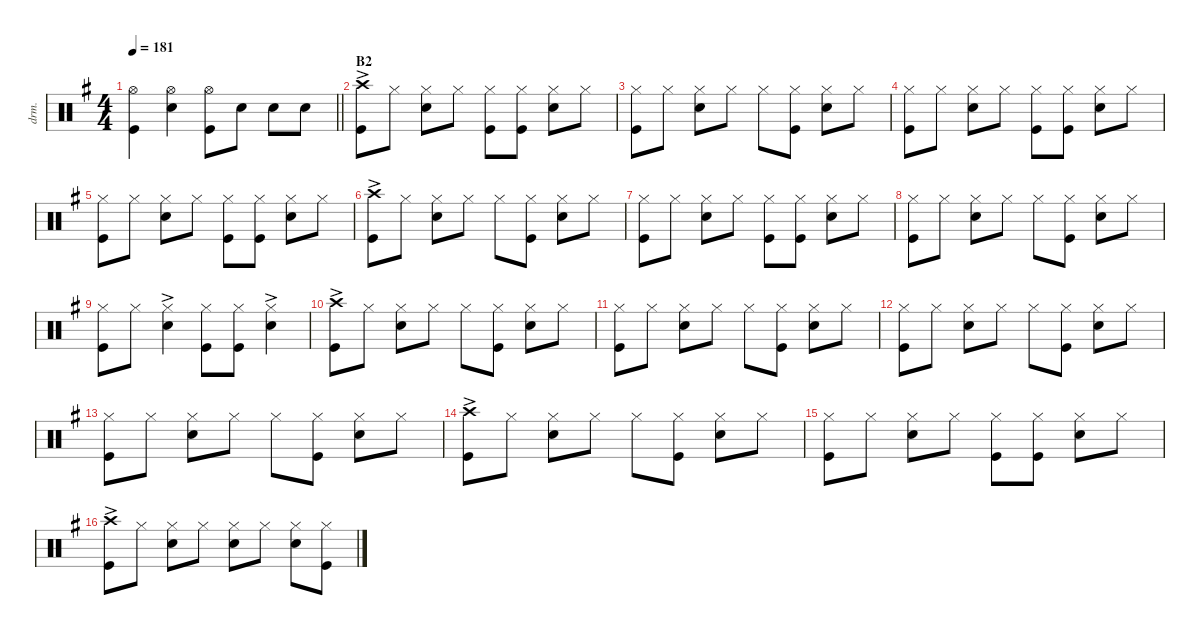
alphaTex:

\defaultSystemsLayout 4
\hideDynamics
\bracketExtendMode nobrackets
\track ("Drums" "drm.") {instrument percussion}
\staff {score}
\articulation defaults
\ts (4 4)
\tempo 181
\clef neutral
\barLineRight lightlight
\ks g
("Kick (hit)"{acc forcenatural} "Hi-Hat (open)"{acc forcenatural}).4{dy f} ("Hi-Hat (open)"{acc forcenatural} "Snare (hit) 2"{acc forcenatural}).4 ("Hi-Hat (open)"{acc forcenatural} "Kick (hit)"{acc forcenatural}).8 "Snare (hit) 2"{acc forcenatural}.8 "Snare (hit) 2"{acc forcenatural}.8 "Snare (hit) 2"{acc forcenatural}.8 |
\section ("" "B2")
("Crash high (hit)"{ac acc forcenatural} "Kick (hit)"{acc forcenatural}).8 "Hi-Hat (closed)"{acc forcenatural}.8 ("Hi-Hat (closed)"{acc forcenatural} "Snare (hit) 2"{acc forcenatural}).8 "Hi-Hat (closed)"{acc forcenatural}.8 ("Hi-Hat (closed)"{acc forcenatural} "Kick (hit)"{acc forcenatural}).8 ("Hi-Hat (closed)"{acc forcenatural} "Kick (hit)"{acc forcenatural}).8 ("Hi-Hat (closed)"{acc forcenatural} "Snare (hit) 2"{acc forcenatural}).8 "Hi-Hat (closed)"{acc forcenatural}.8 |
("Hi-Hat (closed)"{acc forcenatural} "Kick (hit)"{acc forcenatural}).8 "Hi-Hat (closed)"{acc forcenatural}.8 ("Hi-Hat (closed)"{acc forcenatural} "Snare (hit) 2"{acc forcenatural}).8 "Hi-Hat (closed)"{acc forcenatural}.8 "Hi-Hat (closed)"{acc forcenatural}.8 ("Hi-Hat (closed)"{acc forcenatural} "Kick (hit)"{acc forcenatural}).8 ("Hi-Hat (closed)"{acc forcenatural} "Snare (hit) 2"{acc forcenatural}).8 "Hi-Hat (closed)"{acc forcenatural}.8 |
("Hi-Hat (closed)"{acc forcenatural} "Kick (hit)"{acc forcenatural}).8 "Hi-Hat (closed)"{acc forcenatural}.8 ("Hi-Hat (closed)"{acc forcenatural} "Snare (hit) 2"{acc forcenatural}).8 "Hi-Hat (closed)"{acc forcenatural}.8 ("Hi-Hat (closed)"{acc forcenatural} "Kick (hit)"{acc forcenatural}).8 ("Kick (hit)"{acc forcenatural} "Hi-Hat (closed)"{acc forcenatural}).8 ("Snare (hit) 2"{acc forcenatural} "Hi-Hat (closed)"{acc forcenatural}).8 "Hi-Hat (closed)"{acc forcenatural}.8 |
("Kick (hit)"{acc forcenatural} "Hi-Hat (closed)"{acc forcenatural}).8 "Hi-Hat (closed)"{acc forcenatural}.8 ("Snare (hit) 2"{acc forcenatural} "Hi-Hat (closed)"{acc forcenatural}).8 "Hi-Hat (closed)"{acc forcenatural}.8 ("Hi-Hat (closed)"{acc forcenatural} "Kick (hit)"{acc forcenatural}).8 ("Kick (hit)"{acc forcenatural} "Hi-Hat (closed)"{acc forcenatural}).8 ("Hi-Hat (closed)"{acc forcenatural} "Snare (hit) 2"{acc forcenatural}).8 "Hi-Hat (closed)"{acc forcenatural}.8 |
("Crash high (hit)"{ac acc forcenatural} "Kick (hit)"{acc forcenatural}).8 "Hi-Hat (closed)"{acc forcenatural}.8 ("Hi-Hat (closed)"{acc forcenatural} "Snare (hit) 2"{acc forcenatural}).8 "Hi-Hat (closed)"{acc forcenatural}.8 "Hi-Hat (closed)"{acc forcenatural}.8 ("Hi-Hat (closed)"{acc forcenatural} "Kick (hit)"{acc forcenatural}).8 ("Hi-Hat (closed)"{acc forcenatural} "Snare (hit) 2"{acc forcenatural}).8 "Hi-Hat (closed)"{acc forcenatural}.8 |
("Hi-Hat (closed)"{acc forcenatural} "Kick (hit)"{acc forcenatural}).8 "Hi-Hat (closed)"{acc forcenatural}.8 ("Hi-Hat (closed)"{acc forcenatural} "Snare (hit) 2"{acc forcenatural}).8 "Hi-Hat (closed)"{acc forcenatural}.8 ("Hi-Hat (closed)"{acc forcenatural} "Kick (hit)"{acc forcenatural}).8 ("Kick (hit)"{acc forcenatural} "Hi-Hat (closed)"{acc forcenatural}).8 ("Hi-Hat (closed)"{acc forcenatural} "Snare (hit) 2"{acc forcenatural}).8 "Hi-Hat (closed)"{acc forcenatural}.8 |
("Hi-Hat (closed)"{acc forcenatural} "Kick (hit)"{acc forcenatural}).8 "Hi-Hat (closed)"{acc forcenatural}.8 ("Hi-Hat (closed)"{acc forcenatural} "Snare (hit) 2"{acc forcenatural}).8 "Hi-Hat (closed)"{acc forcenatural}.8 "Hi-Hat (closed)"{acc forcenatural}.8 ("Hi-Hat (closed)"{acc forcenatural} "Kick (hit)"{acc forcenatural}).8 ("Snare (hit) 2"{acc forcenatural} "Hi-Hat (closed)"{acc forcenatural}).8 "Hi-Hat (closed)"{acc forcenatural}.8 |
("Hi-Hat (closed)"{acc forcenatural} "Kick (hit)"{acc forcenatural}).8 "Hi-Hat (closed)"{acc forcenatural}.8 ("Hi-Hat (closed)"{ac acc forcenatural} "Snare (hit) 2"{acc forcenatural}).4 ("Hi-Hat (closed)"{acc forcenatural} "Kick (hit)"{acc forcenatural}).8 ("Kick (hit)"{acc forcenatural} "Hi-Hat (closed)"{acc forcenatural}).8 ("Snare (hit) 2"{acc forcenatural} "Hi-Hat (closed)"{ac acc forcenatural}).4 |
("Crash high (hit)"{ac acc forcenatural} "Kick (hit)"{acc forcenatural}).8 "Hi-Hat (closed)"{acc forcenatural}.8 ("Snare (hit) 2"{acc forcenatural} "Hi-Hat (closed)"{acc forcenatural}).8 "Hi-Hat (closed)"{acc forcenatural}.8 "Hi-Hat (closed)"{acc forcenatural}.8 ("Hi-Hat (closed)"{acc forcenatural} "Kick (hit)"{acc forcenatural}).8 ("Snare (hit) 2"{acc forcenatural} "Hi-Hat (closed)"{acc forcenatural}).8 "Hi-Hat (closed)"{acc forcenatural}.8 |
("Hi-Hat (closed)"{acc forcenatural} "Kick (hit)"{acc forcenatural}).8 "Hi-Hat (closed)"{acc forcenatural}.8 ("Snare (hit) 2"{acc forcenatural} "Hi-Hat (closed)"{acc forcenatural}).8 "Hi-Hat (closed)"{acc forcenatural}.8 "Hi-Hat (closed)"{acc forcenatural}.8 ("Hi-Hat (closed)"{acc forcenatural} "Kick (hit)"{acc forcenatural}).8 ("Snare (hit) 2"{acc forcenatural} "Hi-Hat (closed)"{acc forcenatural}).8 "Hi-Hat (closed)"{acc forcenatural}.8 |
("Hi-Hat (closed)"{acc forcenatural} "Kick (hit)"{acc forcenatural}).8 "Hi-Hat (closed)"{acc forcenatural}.8 ("Snare (hit) 2"{acc forcenatural} "Hi-Hat (closed)"{acc forcenatural}).8 "Hi-Hat (closed)"{acc forcenatural}.8 "Hi-Hat (closed)"{acc forcenatural}.8 ("Hi-Hat (closed)"{acc forcenatural} "Kick (hit)"{acc forcenatural}).8 ("Snare (hit) 2"{acc forcenatural} "Hi-Hat (closed)"{acc forcenatural}).8 "Hi-Hat (closed)"{acc forcenatural}.8 |
("Hi-Hat (closed)"{acc forcenatural} "Kick (hit)"{acc forcenatural}).8 "Hi-Hat (closed)"{acc forcenatural}.8 ("Snare (hit) 2"{acc forcenatural} "Hi-Hat (closed)"{acc forcenatural}).8 "Hi-Hat (closed)"{acc forcenatural}.8 "Hi-Hat (closed)"{acc forcenatural}.8 ("Hi-Hat (closed)"{acc forcenatural} "Kick (hit)"{acc forcenatural}).8 ("Snare (hit) 2"{acc forcenatural} "Hi-Hat (closed)"{acc forcenatural}).8 "Hi-Hat (closed)"{acc forcenatural}.8 |
("Crash high (hit)"{ac acc forcenatural} "Kick (hit)"{acc forcenatural}).8 "Hi-Hat (closed)"{acc forcenatural}.8 ("Snare (hit) 2"{acc forcenatural} "Hi-Hat (closed)"{acc forcenatural}).8 "Hi-Hat (closed)"{acc forcenatural}.8 "Hi-Hat (closed)"{acc forcenatural}.8 ("Hi-Hat (closed)"{acc forcenatural} "Kick (hit)"{acc forcenatural}).8 ("Snare (hit) 2"{acc forcenatural} "Hi-Hat (closed)"{acc forcenatural}).8 "Hi-Hat (closed)"{acc forcenatural}.8 |
("Hi-Hat (closed)"{acc forcenatural} "Kick (hit)"{acc forcenatural}).8 "Hi-Hat (closed)"{acc forcenatural}.8 ("Hi-Hat (closed)"{acc forcenatural} "Snare (hit) 2"{acc forcenatural}).8 "Hi-Hat (closed)"{acc forcenatural}.8 ("Hi-Hat (closed)"{acc forcenatural} "Kick (hit)"{acc forcenatural}).8 ("Hi-Hat (closed)"{acc forcenatural} "Kick (hit)"{acc forcenatural}).8 ("Snare (hit) 2"{acc forcenatural} "Hi-Hat (closed)"{acc forcenatural}).8 "Hi-Hat (closed)"{acc forcenatural}.8 |
("Crash high (hit)"{ac acc forcenatural} "Kick (hit)"{acc forcenatural}).8 "Hi-Hat (closed)"{acc forcenatural}.8 ("Hi-Hat (closed)"{acc forcenatural} "Snare (hit) 2"{acc forcenatural}).8 "Hi-Hat (closed)"{acc forcenatural}.8 ("Hi-Hat (closed)"{acc forcenatural} "Snare (hit) 2"{acc forcenatural}).8 "Hi-Hat (closed)"{acc forcenatural}.8 ("Hi-Hat (closed)"{acc forcenatural} "Snare (hit) 2"{acc forcenatural}).8 ("Hi-Hat (closed)"{acc forcenatural} "Kick (hit)"{acc forcenatural}).8
